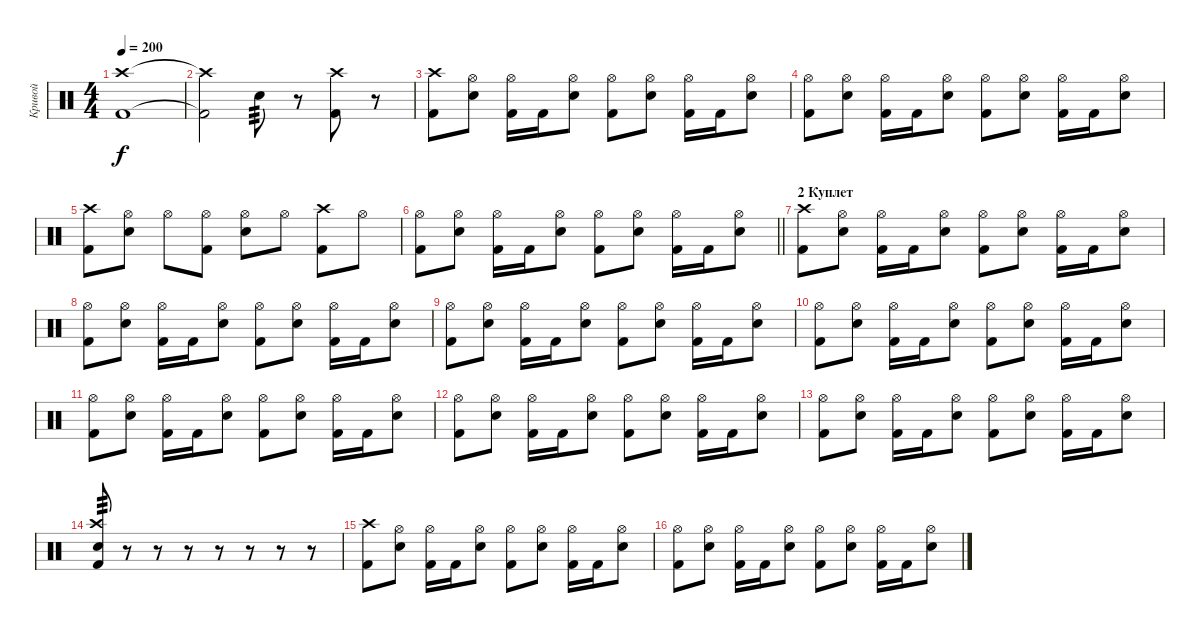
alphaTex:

\track ("Кривой" "Кривой") {instrument percussion}
\staff {score}
\articulation defaults
\ts (4 4)
\tempo 200
\clef neutral
\ks c
("Kick (hit) 2"{t} "Crash high (hit)"{t}).1{dy f} |
("Kick (hit) 2"{t} "Crash high (hit)"{t}).2 "Electric Snare (hit)".8{tp 3} r.8 ("Kick (hit) 2" "Crash high (hit)").8 r.8 |
("Kick (hit) 2" "Crash high (hit)").8 ("Electric Snare (hit)" "Hi-Hat (open)").8 ("Kick (hit) 2" "Hi-Hat (open)").16 "Kick (hit) 2".16 ("Electric Snare (hit)" "Hi-Hat (open)").8 ("Kick (hit) 2" "Hi-Hat (open)").8 ("Electric Snare (hit)" "Hi-Hat (open)").8 ("Kick (hit) 2" "Hi-Hat (open)").16 "Kick (hit) 2".16 ("Electric Snare (hit)" "Hi-Hat (open)").8 |
("Kick (hit) 2" "Hi-Hat (open)").8 ("Electric Snare (hit)" "Hi-Hat (open)").8 ("Kick (hit) 2" "Hi-Hat (open)").16 "Kick (hit) 2".16 ("Electric Snare (hit)" "Hi-Hat (open)").8 ("Kick (hit) 2" "Hi-Hat (open)").8 ("Electric Snare (hit)" "Hi-Hat (open)").8 ("Kick (hit) 2" "Hi-Hat (open)").16 "Kick (hit) 2".16 ("Electric Snare (hit)" "Hi-Hat (open)").8 |
("Kick (hit) 2" "Crash high (hit)").8 ("Electric Snare (hit)" "Hi-Hat (open)").8 "Hi-Hat (open)".8 ("Kick (hit) 2" "Hi-Hat (open)").8 ("Electric Snare (hit)" "Hi-Hat (open)").8 "Hi-Hat (open)".8 ("Kick (hit) 2" "Crash high (hit)").8 "Hi-Hat (open)".8 |
\barLineRight lightlight
("Kick (hit) 2" "Hi-Hat (open)").8 ("Electric Snare (hit)" "Hi-Hat (open)").8 ("Kick (hit) 2" "Hi-Hat (open)").16 "Kick (hit) 2".16 ("Electric Snare (hit)" "Hi-Hat (open)").8 ("Kick (hit) 2" "Hi-Hat (open)").8 ("Electric Snare (hit)" "Hi-Hat (open)").8 ("Kick (hit) 2" "Hi-Hat (open)").16 "Kick (hit) 2".16 ("Electric Snare (hit)" "Hi-Hat (open)").8 |
\section ("" "2 Куплет")
("Kick (hit) 2" "Crash high (hit)").8 ("Electric Snare (hit)" "Hi-Hat (open)").8 ("Kick (hit) 2" "Hi-Hat (open)").16 "Kick (hit) 2".16 ("Electric Snare (hit)" "Hi-Hat (open)").8 ("Kick (hit) 2" "Hi-Hat (open)").8 ("Electric Snare (hit)" "Hi-Hat (open)").8 ("Kick (hit) 2" "Hi-Hat (open)").16 "Kick (hit) 2".16 ("Electric Snare (hit)" "Hi-Hat (open)").8 |
("Kick (hit) 2" "Hi-Hat (open)").8 ("Electric Snare (hit)" "Hi-Hat (open)").8 ("Kick (hit) 2" "Hi-Hat (open)").16 "Kick (hit) 2".16 ("Electric Snare (hit)" "Hi-Hat (open)").8 ("Kick (hit) 2" "Hi-Hat (open)").8 ("Electric Snare (hit)" "Hi-Hat (open)").8 ("Kick (hit) 2" "Hi-Hat (open)").16 "Kick (hit) 2".16 ("Electric Snare (hit)" "Hi-Hat (open)").8 |
("Kick (hit) 2" "Hi-Hat (open)").8 ("Electric Snare (hit)" "Hi-Hat (open)").8 ("Kick (hit) 2" "Hi-Hat (open)").16 "Kick (hit) 2".16 ("Electric Snare (hit)" "Hi-Hat (open)").8 ("Kick (hit) 2" "Hi-Hat (open)").8 ("Electric Snare (hit)" "Hi-Hat (open)").8 ("Kick (hit) 2" "Hi-Hat (open)").16 "Kick (hit) 2".16 ("Electric Snare (hit)" "Hi-Hat (open)").8 |
("Kick (hit) 2" "Hi-Hat (open)").8 ("Electric Snare (hit)" "Hi-Hat (open)").8 ("Kick (hit) 2" "Hi-Hat (open)").16 "Kick (hit) 2".16 ("Electric Snare (hit)" "Hi-Hat (open)").8 ("Kick (hit) 2" "Hi-Hat (open)").8 ("Electric Snare (hit)" "Hi-Hat (open)").8 ("Kick (hit) 2" "Hi-Hat (open)").16 "Kick (hit) 2".16 ("Electric Snare (hit)" "Hi-Hat (open)").8 |
("Kick (hit) 2" "Hi-Hat (open)").8 ("Electric Snare (hit)" "Hi-Hat (open)").8 ("Kick (hit) 2" "Hi-Hat (open)").16 "Kick (hit) 2".16 ("Electric Snare (hit)" "Hi-Hat (open)").8 ("Kick (hit) 2" "Hi-Hat (open)").8 ("Electric Snare (hit)" "Hi-Hat (open)").8 ("Kick (hit) 2" "Hi-Hat (open)").16 "Kick (hit) 2".16 ("Electric Snare (hit)" "Hi-Hat (open)").8 |
("Kick (hit) 2" "Hi-Hat (open)").8 ("Electric Snare (hit)" "Hi-Hat (open)").8 ("Kick (hit) 2" "Hi-Hat (open)").16 "Kick (hit) 2".16 ("Electric Snare (hit)" "Hi-Hat (open)").8 ("Kick (hit) 2" "Hi-Hat (open)").8 ("Electric Snare (hit)" "Hi-Hat (open)").8 ("Kick (hit) 2" "Hi-Hat (open)").16 "Kick (hit) 2".16 ("Electric Snare (hit)" "Hi-Hat (open)").8 |
("Kick (hit) 2" "Hi-Hat (open)").8 ("Electric Snare (hit)" "Hi-Hat (open)").8 ("Kick (hit) 2" "Hi-Hat (open)").16 "Kick (hit) 2".16 ("Electric Snare (hit)" "Hi-Hat (open)").8 ("Kick (hit) 2" "Hi-Hat (open)").8 ("Electric Snare (hit)" "Hi-Hat (open)").8 ("Kick (hit) 2" "Hi-Hat (open)").16 "Kick (hit) 2".16 ("Electric Snare (hit)" "Hi-Hat (open)").8 |
("Kick (hit) 2" "Electric Snare (hit)" "Crash high (hit)").8{tp 3} r.8 r.8 r.8 r.8 r.8 r.8 r.8 |
("Kick (hit) 2" "Crash high (hit)").8 ("Electric Snare (hit)" "Hi-Hat (open)").8 ("Kick (hit) 2" "Hi-Hat (open)").16 "Kick (hit) 2".16 ("Electric Snare (hit)" "Hi-Hat (open)").8 ("Kick (hit) 2" "Hi-Hat (open)").8 ("Electric Snare (hit)" "Hi-Hat (open)").8 ("Kick (hit) 2" "Hi-Hat (open)").16 "Kick (hit) 2".16 ("Electric Snare (hit)" "Hi-Hat (open)").8 |
("Kick (hit) 2" "Hi-Hat (open)").8 ("Electric Snare (hit)" "Hi-Hat (open)").8 ("Kick (hit) 2" "Hi-Hat (open)").16 "Kick (hit) 2".16 ("Electric Snare (hit)" "Hi-Hat (open)").8 ("Kick (hit) 2" "Hi-Hat (open)").8 ("Electric Snare (hit)" "Hi-Hat (open)").8 ("Kick (hit) 2" "Hi-Hat (open)").16 "Kick (hit) 2".16 ("Electric Snare (hit)" "Hi-Hat (open)").8
